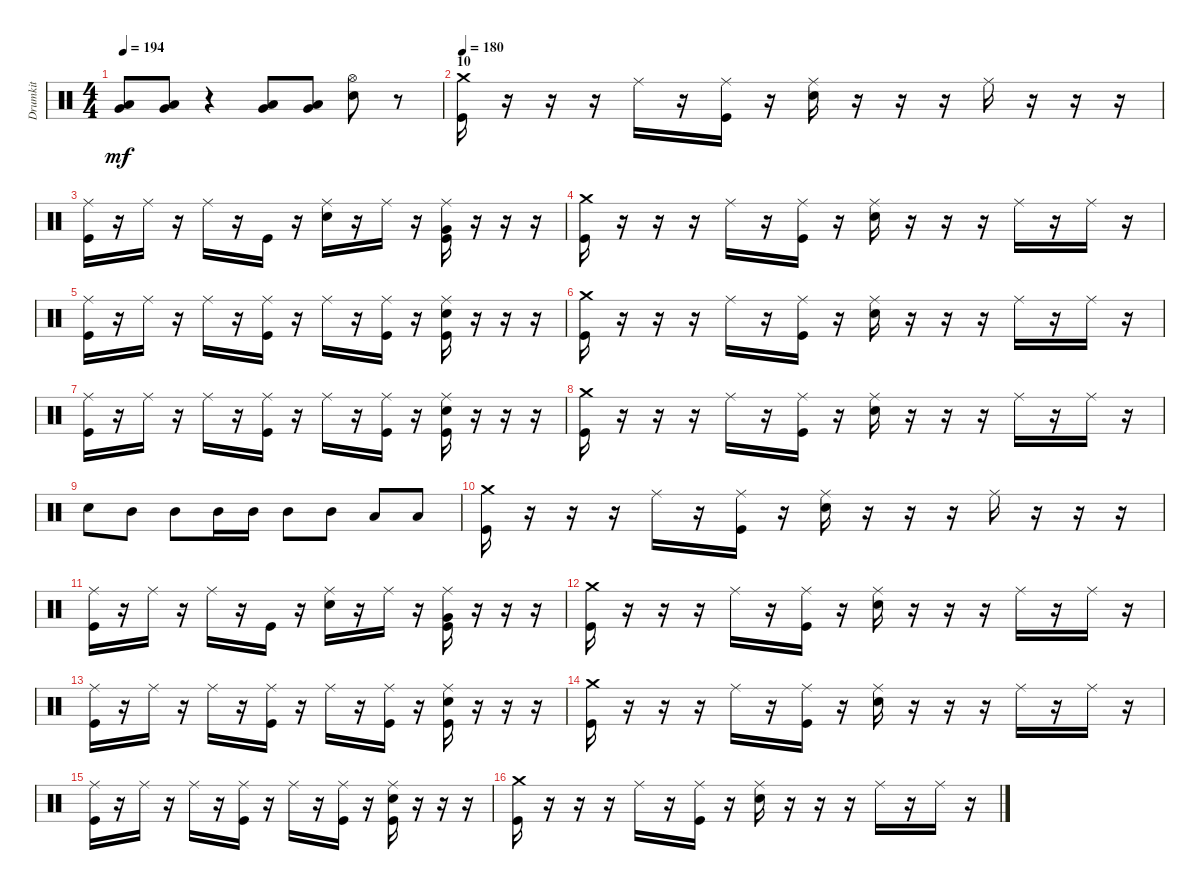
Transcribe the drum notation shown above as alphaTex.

\track ("Drumkit" "Drumkit") {instrument percussion}
\staff {score}
\articulation defaults
\ts (4 4)
\tempo 194
\clef neutral
\ks c
("Low Floor Tom (hit)" "Very Low Tom (hit)").8{dy mf} ("Low Floor Tom (hit)" "Very Low Tom (hit)").8 r.4 ("Low Floor Tom (hit)" "Very Low Tom (hit)").8 ("Low Floor Tom (hit)" "Very Low Tom (hit)").8 ("Snare (hit) 2" "Hi-Hat (open)").8 r.8 |
\section ("" "10")
\tempo 180
("Kick (hit)" "Crash medium (hit)").16 r.16 r.16 r.16 "Ride (middle)".16 r.16 ("Ride (middle)" "Kick (hit)").16 r.16 ("Snare (hit) 2" "Ride (middle)").16 r.16 r.16 r.16 "Ride (middle)".16 r.16 r.16 r.16 |
("Kick (hit)" "Ride (middle)").16 r.16 "Ride (middle)".16 r.16 "Ride (middle)".16 r.16 "Kick (hit)".16 r.16 ("Snare (hit) 2" "Ride (middle)").16 r.16 "Ride (middle)".16 r.16 ("Kick (hit)" "Ride (middle)" "Very Low Tom (hit)").16 r.16 r.16 r.16 |
("Kick (hit)" "Crash medium (hit)").16 r.16 r.16 r.16 "Ride (middle)".16 r.16 ("Ride (middle)" "Kick (hit)").16 r.16 ("Snare (hit) 2" "Ride (middle)").16 r.16 r.16 r.16 "Ride (middle)".16 r.16 "Ride (middle)".16 r.16 |
("Kick (hit)" "Ride (middle)").16 r.16 "Ride (middle)".16 r.16 "Ride (middle)".16 r.16 ("Kick (hit)" "Ride (middle)").16 r.16 "Ride (middle)".16 r.16 ("Kick (hit)" "Ride (middle)").16 r.16 ("Kick (hit)" "Ride (middle)" "Snare (hit) 2").16 r.16 r.16 r.16 |
("Kick (hit)" "Crash medium (hit)").16 r.16 r.16 r.16 "Ride (middle)".16 r.16 ("Ride (middle)" "Kick (hit)").16 r.16 ("Snare (hit) 2" "Ride (middle)").16 r.16 r.16 r.16 "Ride (middle)".16 r.16 "Ride (middle)".16 r.16 |
("Kick (hit)" "Ride (middle)").16 r.16 "Ride (middle)".16 r.16 "Ride (middle)".16 r.16 ("Kick (hit)" "Ride (middle)").16 r.16 "Ride (middle)".16 r.16 ("Kick (hit)" "Ride (middle)").16 r.16 ("Kick (hit)" "Ride (middle)" "Snare (hit) 2").16 r.16 r.16 r.16 |
("Kick (hit)" "Crash medium (hit)").16 r.16 r.16 r.16 "Ride (middle)".16 r.16 ("Ride (middle)" "Kick (hit)").16 r.16 ("Snare (hit) 2" "Ride (middle)").16 r.16 r.16 r.16 "Ride (middle)".16 r.16 "Ride (middle)".16 r.16 |
"Snare (hit) 2".8 "Mid Tom (hit)".8 "Mid Tom (hit)".8 "Mid Tom (hit)".16 "Mid Tom (hit)".16 "Mid Tom (hit)".8 "Mid Tom (hit)".8 "Low Tom (hit)".8 "Low Tom (hit)".8 |
("Kick (hit)" "Crash medium (hit)").16 r.16 r.16 r.16 "Ride (middle)".16 r.16 ("Ride (middle)" "Kick (hit)").16 r.16 ("Snare (hit) 2" "Ride (middle)").16 r.16 r.16 r.16 "Ride (middle)".16 r.16 r.16 r.16 |
("Kick (hit)" "Ride (middle)").16 r.16 "Ride (middle)".16 r.16 "Ride (middle)".16 r.16 "Kick (hit)".16 r.16 ("Snare (hit) 2" "Ride (middle)").16 r.16 "Ride (middle)".16 r.16 ("Kick (hit)" "Ride (middle)" "Very Low Tom (hit)").16 r.16 r.16 r.16 |
("Kick (hit)" "Crash medium (hit)").16 r.16 r.16 r.16 "Ride (middle)".16 r.16 ("Ride (middle)" "Kick (hit)").16 r.16 ("Snare (hit) 2" "Ride (middle)").16 r.16 r.16 r.16 "Ride (middle)".16 r.16 "Ride (middle)".16 r.16 |
("Kick (hit)" "Ride (middle)").16 r.16 "Ride (middle)".16 r.16 "Ride (middle)".16 r.16 ("Kick (hit)" "Ride (middle)").16 r.16 "Ride (middle)".16 r.16 ("Kick (hit)" "Ride (middle)").16 r.16 ("Kick (hit)" "Ride (middle)" "Snare (hit) 2").16 r.16 r.16 r.16 |
("Kick (hit)" "Crash medium (hit)").16 r.16 r.16 r.16 "Ride (middle)".16 r.16 ("Ride (middle)" "Kick (hit)").16 r.16 ("Snare (hit) 2" "Ride (middle)").16 r.16 r.16 r.16 "Ride (middle)".16 r.16 "Ride (middle)".16 r.16 |
("Kick (hit)" "Ride (middle)").16 r.16 "Ride (middle)".16 r.16 "Ride (middle)".16 r.16 ("Kick (hit)" "Ride (middle)").16 r.16 "Ride (middle)".16 r.16 ("Kick (hit)" "Ride (middle)").16 r.16 ("Kick (hit)" "Ride (middle)" "Snare (hit) 2").16 r.16 r.16 r.16 |
("Kick (hit)" "Crash medium (hit)").16 r.16 r.16 r.16 "Ride (middle)".16 r.16 ("Ride (middle)" "Kick (hit)").16 r.16 ("Snare (hit) 2" "Ride (middle)").16 r.16 r.16 r.16 "Ride (middle)".16 r.16 "Ride (middle)".16 r.16
